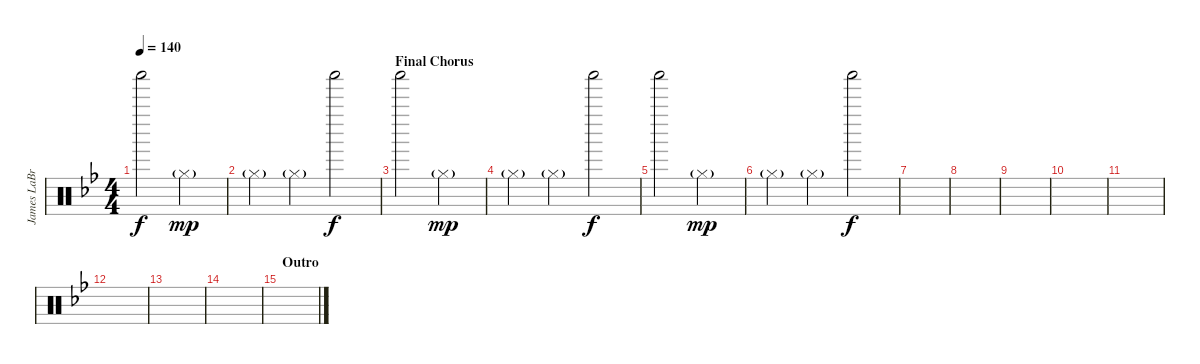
\track ("James LaBrie Percussion" "James LaBr") {instrument percussion}
\staff {score}
\articulation defaults
\ts (4 4)
\tempo 140
\clef neutral
\ks bb "Shaker (hit)".2{dy f} "Hi-Hat (closed)"{g}.2{dy mp}
|
"Hi-Hat (closed)"{g}.4 "Hi-Hat (closed)"{g}.4 "Shaker (hit)".2{dy f} |
\section ("" "Final Chorus")
"Shaker (hit)".2 "Hi-Hat (closed)"{g}.2{dy mp} |
"Hi-Hat (closed)"{g}.4 "Hi-Hat (closed)"{g}.4 "Shaker (hit)".2{dy f} |
"Shaker (hit)".2 "Hi-Hat (closed)"{g}.2{dy mp} |
"Hi-Hat (closed)"{g}.4 "Hi-Hat (closed)"{g}.4 "Shaker (hit)".2{dy f} |
|
|
|
|
|
|
|
|
\section ("" "Outro")
